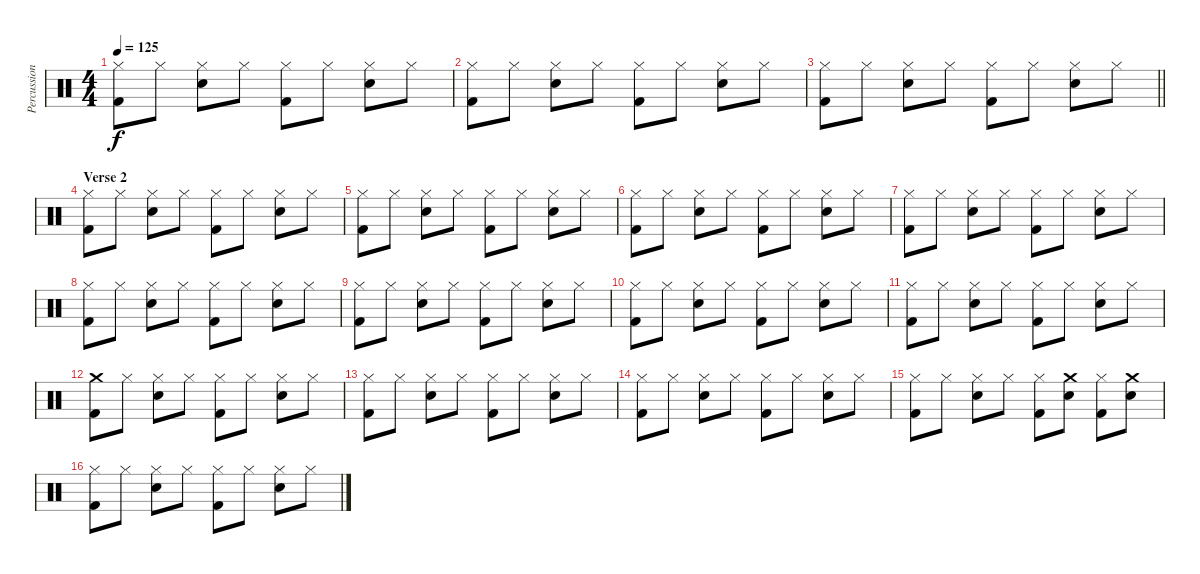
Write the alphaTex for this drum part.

\track ("Percussion" "Percussion") {instrument percussion}
\staff {score}
\articulation defaults
\ts (4 4)
\tempo 125
\clef neutral
\ks c
("Hi-Hat (closed)" "Kick (hit) 2").8{dy f} "Hi-Hat (closed)".8 ("Hi-Hat (closed)" "Snare (hit) 2").8 "Hi-Hat (closed)".8 ("Hi-Hat (closed)" "Kick (hit) 2").8 "Hi-Hat (closed)".8 ("Hi-Hat (closed)" "Snare (hit) 2").8 "Hi-Hat (closed)".8 |
("Hi-Hat (closed)" "Kick (hit) 2").8 "Hi-Hat (closed)".8 ("Hi-Hat (closed)" "Snare (hit) 2").8 "Hi-Hat (closed)".8 ("Hi-Hat (closed)" "Kick (hit) 2").8 "Hi-Hat (closed)".8 ("Hi-Hat (closed)" "Snare (hit) 2").8 "Hi-Hat (closed)".8 |
\barLineRight lightlight
("Hi-Hat (closed)" "Kick (hit) 2").8 "Hi-Hat (closed)".8 ("Hi-Hat (closed)" "Snare (hit) 2").8 "Hi-Hat (closed)".8 ("Hi-Hat (closed)" "Kick (hit) 2").8 "Hi-Hat (closed)".8 ("Hi-Hat (closed)" "Snare (hit) 2").8 "Hi-Hat (closed)".8 |
\section ("" "Verse 2")
("Hi-Hat (closed)" "Kick (hit) 2").8 "Hi-Hat (closed)".8 ("Hi-Hat (closed)" "Snare (hit) 2").8 "Hi-Hat (closed)".8 ("Hi-Hat (closed)" "Kick (hit) 2").8 "Hi-Hat (closed)".8 ("Hi-Hat (closed)" "Snare (hit) 2").8 "Hi-Hat (closed)".8 |
("Hi-Hat (closed)" "Kick (hit) 2").8 "Hi-Hat (closed)".8 ("Hi-Hat (closed)" "Snare (hit) 2").8 "Hi-Hat (closed)".8 ("Hi-Hat (closed)" "Kick (hit) 2").8 "Hi-Hat (closed)".8 ("Hi-Hat (closed)" "Snare (hit) 2").8 "Hi-Hat (closed)".8 |
("Hi-Hat (closed)" "Kick (hit) 2").8 "Hi-Hat (closed)".8 ("Hi-Hat (closed)" "Snare (hit) 2").8 "Hi-Hat (closed)".8 ("Hi-Hat (closed)" "Kick (hit) 2").8 "Hi-Hat (closed)".8 ("Hi-Hat (closed)" "Snare (hit) 2").8 "Hi-Hat (closed)".8 |
("Hi-Hat (closed)" "Kick (hit) 2").8 "Hi-Hat (closed)".8 ("Hi-Hat (closed)" "Snare (hit) 2").8 "Hi-Hat (closed)".8 ("Hi-Hat (closed)" "Kick (hit) 2").8 "Hi-Hat (closed)".8 ("Hi-Hat (closed)" "Snare (hit) 2").8 "Hi-Hat (closed)".8 |
("Hi-Hat (closed)" "Kick (hit) 2").8 "Hi-Hat (closed)".8 ("Hi-Hat (closed)" "Snare (hit) 2").8 "Hi-Hat (closed)".8 ("Hi-Hat (closed)" "Kick (hit) 2").8 "Hi-Hat (closed)".8 ("Hi-Hat (closed)" "Snare (hit) 2").8 "Hi-Hat (closed)".8 |
("Hi-Hat (closed)" "Kick (hit) 2").8 "Hi-Hat (closed)".8 ("Hi-Hat (closed)" "Snare (hit) 2").8 "Hi-Hat (closed)".8 ("Hi-Hat (closed)" "Kick (hit) 2").8 "Hi-Hat (closed)".8 ("Hi-Hat (closed)" "Snare (hit) 2").8 "Hi-Hat (closed)".8 |
("Hi-Hat (closed)" "Kick (hit) 2").8 "Hi-Hat (closed)".8 ("Hi-Hat (closed)" "Snare (hit) 2").8 "Hi-Hat (closed)".8 ("Hi-Hat (closed)" "Kick (hit) 2").8 "Hi-Hat (closed)".8 ("Hi-Hat (closed)" "Snare (hit) 2").8 "Hi-Hat (closed)".8 |
("Hi-Hat (closed)" "Kick (hit) 2").8 "Hi-Hat (closed)".8 ("Hi-Hat (closed)" "Snare (hit) 2").8 "Hi-Hat (closed)".8 ("Hi-Hat (closed)" "Kick (hit) 2").8 "Hi-Hat (closed)".8 ("Hi-Hat (closed)" "Snare (hit) 2").8 "Hi-Hat (closed)".8 |
("Crash medium (hit)" "Kick (hit) 2").8 "Hi-Hat (closed)".8 ("Hi-Hat (closed)" "Snare (hit) 2").8 "Hi-Hat (closed)".8 ("Hi-Hat (closed)" "Kick (hit) 2").8 "Hi-Hat (closed)".8 ("Hi-Hat (closed)" "Snare (hit) 2").8 "Hi-Hat (closed)".8 |
("Hi-Hat (closed)" "Kick (hit) 2").8 "Hi-Hat (closed)".8 ("Hi-Hat (closed)" "Snare (hit) 2").8 "Hi-Hat (closed)".8 ("Hi-Hat (closed)" "Kick (hit) 2").8 "Hi-Hat (closed)".8 ("Hi-Hat (closed)" "Snare (hit) 2").8 "Hi-Hat (closed)".8 |
("Hi-Hat (closed)" "Kick (hit) 2").8 "Hi-Hat (closed)".8 ("Hi-Hat (closed)" "Snare (hit) 2").8 "Hi-Hat (closed)".8 ("Hi-Hat (closed)" "Kick (hit) 2").8 "Hi-Hat (closed)".8 ("Hi-Hat (closed)" "Snare (hit) 2").8 "Hi-Hat (closed)".8 |
("Hi-Hat (closed)" "Kick (hit) 2").8 "Hi-Hat (closed)".8 ("Hi-Hat (closed)" "Snare (hit) 2").8 "Hi-Hat (closed)".8 ("Hi-Hat (closed)" "Kick (hit) 2").8 ("Crash medium (hit)" "Snare (hit) 2").8 ("Hi-Hat (closed)" "Kick (hit) 2").8 ("Crash medium (hit)" "Snare (hit) 2").8 |
("Hi-Hat (closed)" "Kick (hit) 2").8 "Hi-Hat (closed)".8 ("Hi-Hat (closed)" "Snare (hit) 2").8 "Hi-Hat (closed)".8 ("Hi-Hat (closed)" "Kick (hit) 2").8 "Hi-Hat (closed)".8 ("Hi-Hat (closed)" "Snare (hit) 2").8 "Hi-Hat (closed)".8
